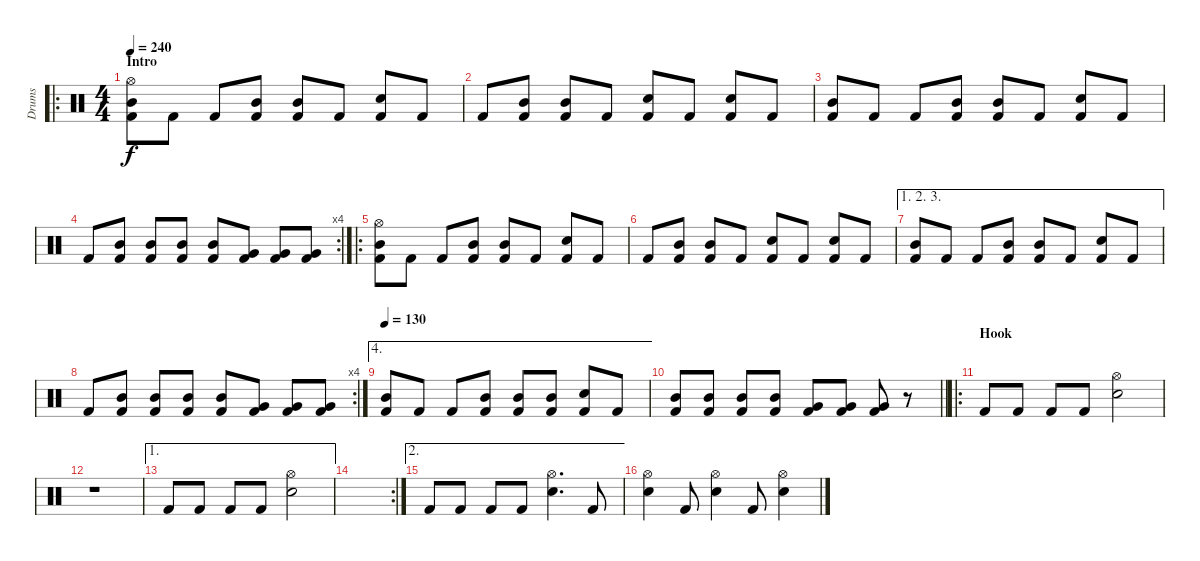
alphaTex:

\track ("Drums" "Drums") {instrument percussion}
\staff {score}
\articulation defaults
\ro
\ts (4 4)
\section ("" "Intro")
\tempo 240
\clef neutral
\ks c
("Hi-Hat (open)" "Mid Tom (hit)" "Kick (hit) 2").8{dy f} "Kick (hit) 2".8 "Kick (hit) 2".8 ("Mid Tom (hit)" "Kick (hit) 2").8 ("Mid Tom (hit)" "Kick (hit) 2").8 "Kick (hit) 2".8 ("Snare (hit) 2" "Kick (hit) 2").8 "Kick (hit) 2".8 |
"Kick (hit) 2".8 ("Mid Tom (hit)" "Kick (hit) 2").8 ("Mid Tom (hit)" "Kick (hit) 2").8 "Kick (hit) 2".8 ("Snare (hit) 2" "Kick (hit) 2").8 "Kick (hit) 2".8 ("Snare (hit) 2" "Kick (hit) 2").8 "Kick (hit) 2".8 |
("Mid Tom (hit)" "Kick (hit) 2").8 "Kick (hit) 2".8 "Kick (hit) 2".8 ("Mid Tom (hit)" "Kick (hit) 2").8 ("Mid Tom (hit)" "Kick (hit) 2").8 "Kick (hit) 2".8 ("Snare (hit) 2" "Kick (hit) 2").8 "Kick (hit) 2".8 |
\rc 4 "Kick (hit) 2".8
("Mid Tom (hit)" "Kick (hit) 2").8 ("Mid Tom (hit)" "Kick (hit) 2").8 ("Mid Tom (hit)" "Kick (hit) 2").8 ("Mid Tom (hit)" "Kick (hit) 2").8 ("Very Low Tom (hit)" "Kick (hit) 2").8 ("Very Low Tom (hit)" "Kick (hit) 2").8 ("Very Low Tom (hit)" "Kick (hit) 2").8 |
\ro
("Hi-Hat (open)" "Mid Tom (hit)" "Kick (hit) 2").8 "Kick (hit) 2".8 "Kick (hit) 2".8 ("Mid Tom (hit)" "Kick (hit) 2").8 ("Mid Tom (hit)" "Kick (hit) 2").8 "Kick (hit) 2".8 ("Snare (hit) 2" "Kick (hit) 2").8 "Kick (hit) 2".8 |
"Kick (hit) 2".8 ("Mid Tom (hit)" "Kick (hit) 2").8 ("Mid Tom (hit)" "Kick (hit) 2").8 "Kick (hit) 2".8 ("Snare (hit) 2" "Kick (hit) 2").8 "Kick (hit) 2".8 ("Snare (hit) 2" "Kick (hit) 2").8 "Kick (hit) 2".8 |
\ae (1 2 3)
("Mid Tom (hit)" "Kick (hit) 2").8 "Kick (hit) 2".8 "Kick (hit) 2".8 ("Mid Tom (hit)" "Kick (hit) 2").8 ("Mid Tom (hit)" "Kick (hit) 2").8 "Kick (hit) 2".8 ("Snare (hit) 2" "Kick (hit) 2").8 "Kick (hit) 2".8 |
\rc 4 "Kick (hit) 2".8
("Mid Tom (hit)" "Kick (hit) 2").8 ("Mid Tom (hit)" "Kick (hit) 2").8 ("Mid Tom (hit)" "Kick (hit) 2").8 ("Mid Tom (hit)" "Kick (hit) 2").8 ("Very Low Tom (hit)" "Kick (hit) 2").8 ("Very Low Tom (hit)" "Kick (hit) 2").8 ("Very Low Tom (hit)" "Kick (hit) 2").8 |
\ae 4
\tempo 130
("Mid Tom (hit)" "Kick (hit) 2").8 "Kick (hit) 2".8 "Kick (hit) 2".8 ("Mid Tom (hit)" "Kick (hit) 2").8 ("Mid Tom (hit)" "Kick (hit) 2").8 ("Mid Tom (hit)" "Kick (hit) 2").8 ("Snare (hit) 2" "Kick (hit) 2").8 "Kick (hit) 2".8 |
\barLineRight lightlight
("Mid Tom (hit)" "Kick (hit) 2").8 ("Mid Tom (hit)" "Kick (hit) 2").8 ("Mid Tom (hit)" "Kick (hit) 2").8 ("Mid Tom (hit)" "Kick (hit) 2").8 ("Very Low Tom (hit)" "Kick (hit) 2").8 ("Very Low Tom (hit)" "Kick (hit) 2").8 ("Very Low Tom (hit)" "Kick (hit) 2").8 r.8 |
\ro
\section ("" "Hook")
"Kick (hit) 2".8 "Kick (hit) 2".8 "Kick (hit) 2".8 "Kick (hit) 2".8 ("Hi-Hat (open)" "Snare (hit) 2").2 |
r.1 |
\ae 1 "Kick (hit) 2".8 "Kick (hit) 2".8 "Kick (hit) 2".8 "Kick (hit) 2".8
("Hi-Hat (open)" "Snare (hit) 2").2 |
\rc 2
|
\ae 2 "Kick (hit) 2".8 "Kick (hit) 2".8 "Kick (hit) 2".8 "Kick (hit) 2".8
("Hi-Hat (open)" "Snare (hit) 2").4{d} "Kick (hit) 2".8 |
("Hi-Hat (open)" "Snare (hit) 2").4 "Kick (hit) 2".8 ("Hi-Hat (open)" "Snare (hit) 2").4 "Kick (hit) 2".8 ("Hi-Hat (open)" "Snare (hit) 2").4
